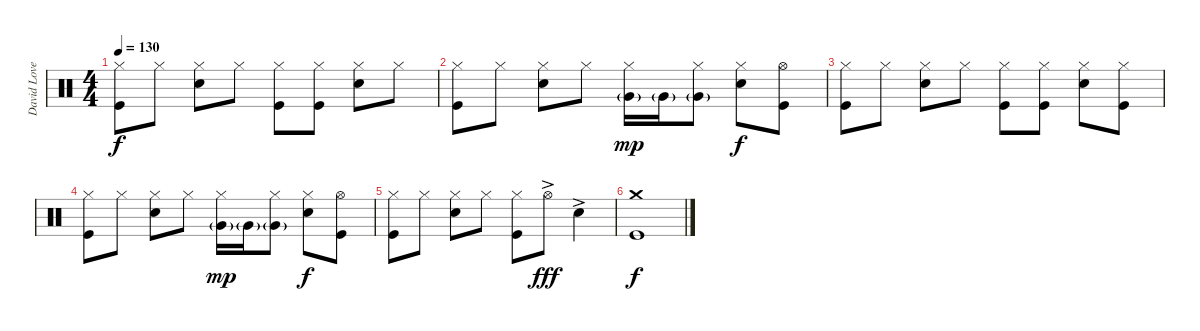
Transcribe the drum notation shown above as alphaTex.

\track ("David Lovering" "David Love") {instrument percussion}
\staff {score}
\articulation defaults
\ts (4 4)
\tempo 130
\clef neutral
\ks c
("Hi-Hat (closed)" "Kick (hit)").8{dy f} "Hi-Hat (closed)".8 ("Hi-Hat (closed)" "Snare (hit) 2").8 "Hi-Hat (closed)".8 ("Hi-Hat (closed)" "Kick (hit)").8 ("Hi-Hat (closed)" "Kick (hit)").8 ("Hi-Hat (closed)" "Snare (hit) 2").8 "Hi-Hat (closed)".8 |
("Hi-Hat (closed)" "Kick (hit)").8 "Hi-Hat (closed)".8 ("Hi-Hat (closed)" "Snare (hit) 2").8 "Hi-Hat (closed)".8 ("Hi-Hat (closed)" "Very Low Tom (hit)"{g}).16{dy mp} "Very Low Tom (hit)"{g}.16 ("Hi-Hat (closed)" "Very Low Tom (hit)"{g}).8 ("Hi-Hat (closed)" "Snare (hit) 2").8{dy f} ("Hi-Hat (open)" "Kick (hit)").8 |
("Hi-Hat (closed)" "Kick (hit)").8 "Hi-Hat (closed)".8 ("Hi-Hat (closed)" "Snare (hit) 2").8 "Hi-Hat (closed)".8 ("Hi-Hat (closed)" "Kick (hit)").8 ("Hi-Hat (closed)" "Kick (hit)").8 ("Hi-Hat (closed)" "Snare (hit) 2").8 ("Hi-Hat (closed)" "Kick (hit)").8 |
("Hi-Hat (closed)" "Kick (hit)").8 "Hi-Hat (closed)".8 ("Hi-Hat (closed)" "Snare (hit) 2").8 "Hi-Hat (closed)".8 ("Hi-Hat (closed)" "Very Low Tom (hit)"{g}).16{dy mp} "Very Low Tom (hit)"{g}.16 ("Hi-Hat (closed)" "Very Low Tom (hit)"{g}).8 ("Hi-Hat (closed)" "Snare (hit) 2").8{dy f} ("Hi-Hat (open)" "Kick (hit)").8 |
("Hi-Hat (closed)" "Kick (hit)").8 "Hi-Hat (closed)".8 ("Hi-Hat (closed)" "Snare (hit) 2").8 "Hi-Hat (closed)".8 ("Hi-Hat (closed)" "Kick (hit)").8 "Hi-Hat (open)"{ac}.8{dy fff} "Snare (hit) 2"{ac}.4 |
("Crash medium (hit)" "Kick (hit)").1{dy f}
